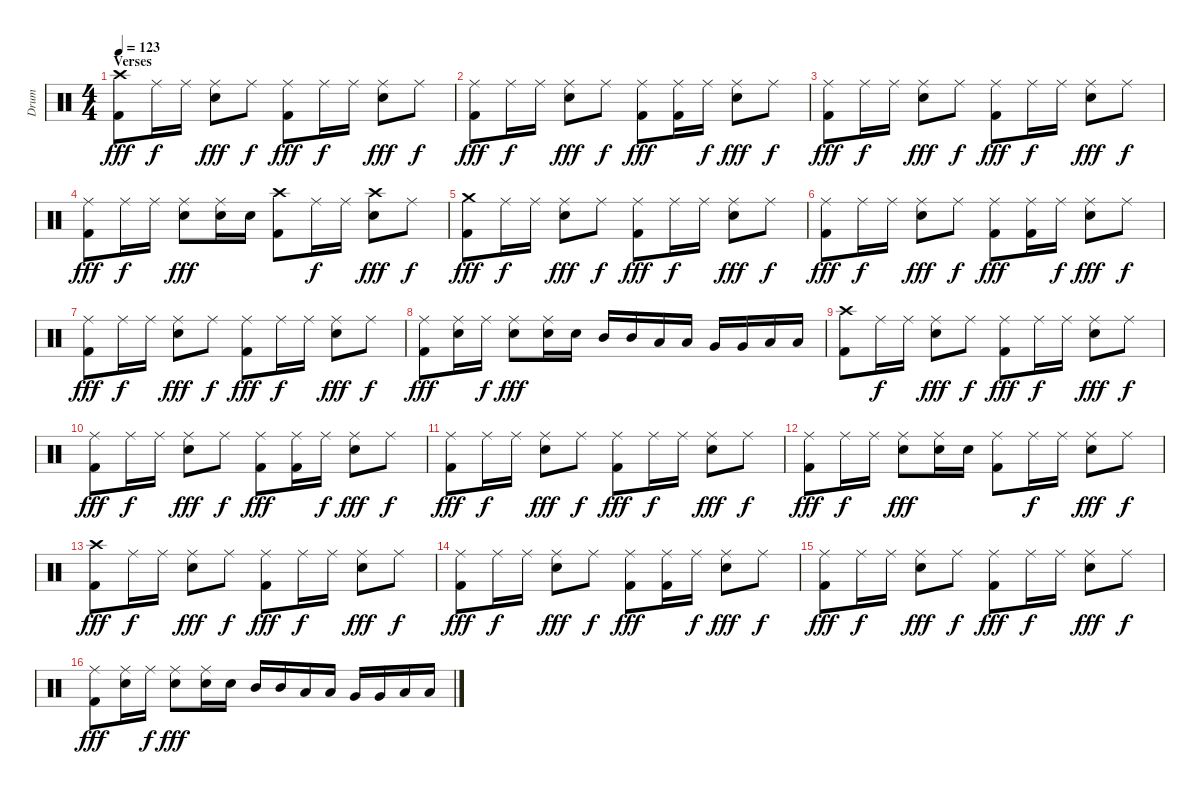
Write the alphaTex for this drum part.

\track ("Drum" "Drum") {instrument percussion}
\staff {score}
\articulation defaults
\ts (4 4)
\section ("" "Verses")
\tempo 123
\clef neutral
\ks c
("Crash high (hit)" "Kick (hit) 2").8{dy fff} "Ride (middle)".16{dy f} "Ride (middle)".16 ("Ride (middle)" "Electric Snare (hit)").8{dy fff} "Ride (middle)".8{dy f} ("Ride (middle)" "Kick (hit) 2").8{dy fff} "Ride (middle)".16{dy f} "Ride (middle)".16 ("Ride (middle)" "Electric Snare (hit)").8{dy fff} "Ride (middle)".8{dy f} |
("Ride (middle)" "Kick (hit) 2").8{dy fff} "Ride (middle)".16{dy f} "Ride (middle)".16 ("Ride (middle)" "Electric Snare (hit)").8{dy fff} "Ride (middle)".8{dy f} ("Ride (middle)" "Kick (hit) 2").8{dy fff} ("Ride (middle)" "Kick (hit) 2").16 "Ride (middle)".16{dy f} ("Ride (middle)" "Electric Snare (hit)").8{dy fff} "Ride (middle)".8{dy f} |
("Ride (middle)" "Kick (hit) 2").8{dy fff} "Ride (middle)".16{dy f} "Ride (middle)".16 ("Ride (middle)" "Electric Snare (hit)").8{dy fff} "Ride (middle)".8{dy f} ("Ride (middle)" "Kick (hit) 2").8{dy fff} "Ride (middle)".16{dy f} "Ride (middle)".16 ("Ride (middle)" "Electric Snare (hit)").8{dy fff} "Ride (middle)".8{dy f} |
("Ride (middle)" "Kick (hit) 2").8{dy fff} "Ride (middle)".16{dy f} "Ride (middle)".16 ("Ride (middle)" "Electric Snare (hit)").8{dy fff} ("Ride (middle)" "Electric Snare (hit)").16 "Electric Snare (hit)".16 ("Crash high (hit)" "Kick (hit) 2").8 "Ride (middle)".16{dy f} "Ride (middle)".16 ("Crash high (hit)" "Electric Snare (hit)").8{dy fff} "Ride (middle)".8{dy f} |
("Crash medium (hit)" "Kick (hit) 2").8{dy fff} "Ride (middle)".16{dy f} "Ride (middle)".16 ("Ride (middle)" "Electric Snare (hit)").8{dy fff} "Ride (middle)".8{dy f} ("Ride (middle)" "Kick (hit) 2").8{dy fff} "Ride (middle)".16{dy f} "Ride (middle)".16 ("Ride (middle)" "Electric Snare (hit)").8{dy fff} "Ride (middle)".8{dy f} |
("Ride (middle)" "Kick (hit) 2").8{dy fff} "Ride (middle)".16{dy f} "Ride (middle)".16 ("Ride (middle)" "Electric Snare (hit)").8{dy fff} "Ride (middle)".8{dy f} ("Ride (middle)" "Kick (hit) 2").8{dy fff} ("Ride (middle)" "Kick (hit) 2").16 "Ride (middle)".16{dy f} ("Ride (middle)" "Electric Snare (hit)").8{dy fff} "Ride (middle)".8{dy f} |
("Ride (middle)" "Kick (hit) 2").8{dy fff} "Ride (middle)".16{dy f} "Ride (middle)".16 ("Ride (middle)" "Electric Snare (hit)").8{dy fff} "Ride (middle)".8{dy f} ("Ride (middle)" "Kick (hit) 2").8{dy fff} "Ride (middle)".16{dy f} "Ride (middle)".16 ("Ride (middle)" "Electric Snare (hit)").8{dy fff} "Ride (middle)".8{dy f} |
("Ride (middle)" "Kick (hit) 2").8{dy fff} ("Ride (middle)" "Electric Snare (hit)").16 "Ride (middle)".16{dy f} ("Ride (middle)" "Electric Snare (hit)").8{dy fff} ("Ride (middle)" "Electric Snare (hit)").16 "Electric Snare (hit)".16 "Mid Tom (hit)".16 "Mid Tom (hit)".16 "Low Tom (hit)".16 "Low Tom (hit)".16 "Very Low Tom (hit)".16 "Very Low Tom (hit)".16 "Low Tom (hit)".16 "Low Tom (hit)".16 |
("Crash high (hit)" "Kick (hit) 2").8 "Ride (middle)".16{dy f} "Ride (middle)".16 ("Ride (middle)" "Electric Snare (hit)").8{dy fff} "Ride (middle)".8{dy f} ("Ride (middle)" "Kick (hit) 2").8{dy fff} "Ride (middle)".16{dy f} "Ride (middle)".16 ("Ride (middle)" "Electric Snare (hit)").8{dy fff} "Ride (middle)".8{dy f} |
("Ride (middle)" "Kick (hit) 2").8{dy fff} "Ride (middle)".16{dy f} "Ride (middle)".16 ("Ride (middle)" "Electric Snare (hit)").8{dy fff} "Ride (middle)".8{dy f} ("Ride (middle)" "Kick (hit) 2").8{dy fff} ("Ride (middle)" "Kick (hit) 2").16 "Ride (middle)".16{dy f} ("Ride (middle)" "Electric Snare (hit)").8{dy fff} "Ride (middle)".8{dy f} |
("Ride (middle)" "Kick (hit) 2").8{dy fff} "Ride (middle)".16{dy f} "Ride (middle)".16 ("Ride (middle)" "Electric Snare (hit)").8{dy fff} "Ride (middle)".8{dy f} ("Ride (middle)" "Kick (hit) 2").8{dy fff} "Ride (middle)".16{dy f} "Ride (middle)".16 ("Ride (middle)" "Electric Snare (hit)").8{dy fff} "Ride (middle)".8{dy f} |
("Ride (middle)" "Kick (hit) 2").8{dy fff} "Ride (middle)".16{dy f} "Ride (middle)".16 ("Ride (middle)" "Electric Snare (hit)").8{dy fff} ("Ride (middle)" "Electric Snare (hit)").16 "Electric Snare (hit)".16 ("Ride (middle)" "Kick (hit) 2").8 "Ride (middle)".16{dy f} "Ride (middle)".16 ("Ride (middle)" "Electric Snare (hit)").8{dy fff} "Ride (middle)".8{dy f} |
("Crash high (hit)" "Kick (hit) 2").8{dy fff} "Ride (middle)".16{dy f} "Ride (middle)".16 ("Ride (middle)" "Electric Snare (hit)").8{dy fff} "Ride (middle)".8{dy f} ("Ride (middle)" "Kick (hit) 2").8{dy fff} "Ride (middle)".16{dy f} "Ride (middle)".16 ("Ride (middle)" "Electric Snare (hit)").8{dy fff} "Ride (middle)".8{dy f} |
("Ride (middle)" "Kick (hit) 2").8{dy fff} "Ride (middle)".16{dy f} "Ride (middle)".16 ("Ride (middle)" "Electric Snare (hit)").8{dy fff} "Ride (middle)".8{dy f} ("Ride (middle)" "Kick (hit) 2").8{dy fff} ("Ride (middle)" "Kick (hit) 2").16 "Ride (middle)".16{dy f} ("Ride (middle)" "Electric Snare (hit)").8{dy fff} "Ride (middle)".8{dy f} |
("Ride (middle)" "Kick (hit) 2").8{dy fff} "Ride (middle)".16{dy f} "Ride (middle)".16 ("Ride (middle)" "Electric Snare (hit)").8{dy fff} "Ride (middle)".8{dy f} ("Ride (middle)" "Kick (hit) 2").8{dy fff} "Ride (middle)".16{dy f} "Ride (middle)".16 ("Ride (middle)" "Electric Snare (hit)").8{dy fff} "Ride (middle)".8{dy f} |
("Ride (middle)" "Kick (hit) 2").8{dy fff} ("Ride (middle)" "Electric Snare (hit)").16 "Ride (middle)".16{dy f} ("Ride (middle)" "Electric Snare (hit)").8{dy fff} ("Ride (middle)" "Electric Snare (hit)").16 "Electric Snare (hit)".16 "Mid Tom (hit)".16 "Mid Tom (hit)".16 "Low Tom (hit)".16 "Low Tom (hit)".16 "Very Low Tom (hit)".16 "Very Low Tom (hit)".16 "Low Tom (hit)".16 "Low Tom (hit)".16
